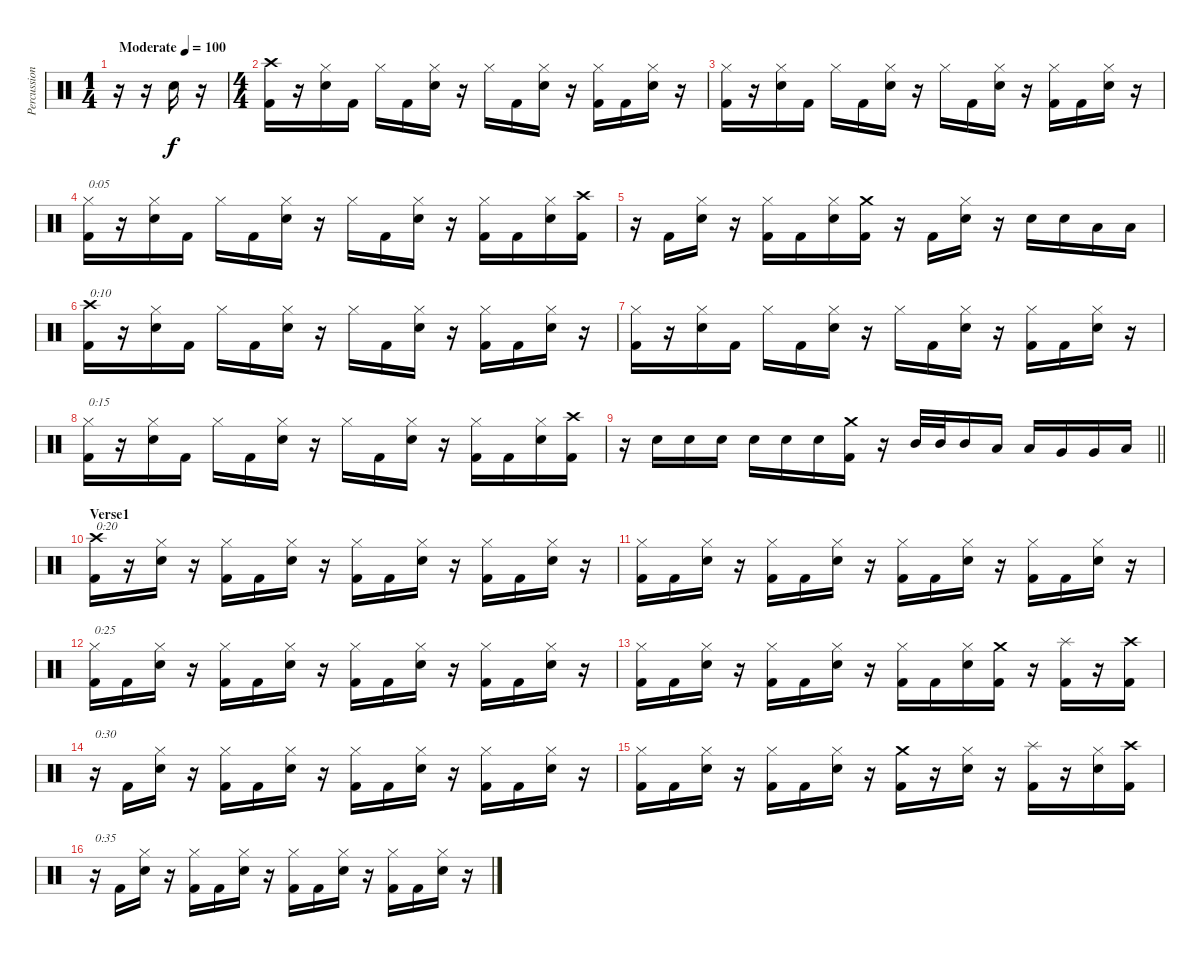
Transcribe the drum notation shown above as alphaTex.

\track ("Percussion" "Percussion") {instrument percussion}
\staff {score}
\articulation defaults
\ts (1 4)
\tempo (100 "Moderate")
\clef neutral
\ks c
r.16{dy f} r.16 "Electric Snare (hit)".16 r.16 |
\ts (4 4)
("Crash high (hit)" "Kick (hit) 2").16 r.16 ("Hi-Hat (closed)" "Electric Snare (hit)").16 "Kick (hit) 2".16 "Hi-Hat (closed)".16 "Kick (hit) 2".16 ("Hi-Hat (closed)" "Electric Snare (hit)").16 r.16 "Hi-Hat (closed)".16 "Kick (hit) 2".16 ("Hi-Hat (closed)" "Electric Snare (hit)").16 r.16 ("Hi-Hat (closed)" "Kick (hit) 2").16 "Kick (hit) 2".16 ("Hi-Hat (closed)" "Electric Snare (hit)").16 r.16 |
("Hi-Hat (closed)" "Kick (hit) 2").16 r.16 ("Hi-Hat (closed)" "Electric Snare (hit)").16 "Kick (hit) 2".16 "Hi-Hat (closed)".16 "Kick (hit) 2".16 ("Hi-Hat (closed)" "Electric Snare (hit)").16 r.16 "Hi-Hat (closed)".16 "Kick (hit) 2".16 ("Hi-Hat (closed)" "Electric Snare (hit)").16 r.16 ("Hi-Hat (closed)" "Kick (hit) 2").16 "Kick (hit) 2".16 ("Hi-Hat (closed)" "Electric Snare (hit)").16 r.16 |
("Hi-Hat (closed)" "Kick (hit) 2").16{txt "0:05"} r.16 ("Hi-Hat (closed)" "Electric Snare (hit)").16 "Kick (hit) 2".16 "Hi-Hat (closed)".16 "Kick (hit) 2".16 ("Hi-Hat (closed)" "Electric Snare (hit)").16 r.16 "Hi-Hat (closed)".16 "Kick (hit) 2".16 ("Hi-Hat (closed)" "Electric Snare (hit)").16 r.16 ("Hi-Hat (closed)" "Kick (hit) 2").16 "Kick (hit) 2".16 ("Hi-Hat (closed)" "Electric Snare (hit)").16 ("Crash high (hit)" "Kick (hit) 2").16 |
r.16 "Kick (hit) 2".16 ("Hi-Hat (closed)" "Electric Snare (hit)").16 r.16 ("Hi-Hat (closed)" "Kick (hit) 2").16 "Kick (hit) 2".16 ("Hi-Hat (closed)" "Electric Snare (hit)").16 ("Crash medium (hit)" "Kick (hit) 2").16 r.16 "Kick (hit) 2".16 ("Hi-Hat (closed)" "Electric Snare (hit)").16 r.16 "Electric Snare (hit)".16 "Electric Snare (hit)".16 "Low Tom (hit)".16 "Low Tom (hit)".16 |
("Crash high (hit)" "Kick (hit) 2").16{txt "0:10"} r.16 ("Hi-Hat (closed)" "Electric Snare (hit)").16 "Kick (hit) 2".16 "Hi-Hat (closed)".16 "Kick (hit) 2".16 ("Hi-Hat (closed)" "Electric Snare (hit)").16 r.16 "Hi-Hat (closed)".16 "Kick (hit) 2".16 ("Hi-Hat (closed)" "Electric Snare (hit)").16 r.16 ("Hi-Hat (closed)" "Kick (hit) 2").16 "Kick (hit) 2".16 ("Hi-Hat (closed)" "Electric Snare (hit)").16 r.16 |
("Hi-Hat (closed)" "Kick (hit) 2").16 r.16 ("Hi-Hat (closed)" "Electric Snare (hit)").16 "Kick (hit) 2".16 "Hi-Hat (closed)".16 "Kick (hit) 2".16 ("Hi-Hat (closed)" "Electric Snare (hit)").16 r.16 "Hi-Hat (closed)".16 "Kick (hit) 2".16 ("Hi-Hat (closed)" "Electric Snare (hit)").16 r.16 ("Hi-Hat (closed)" "Kick (hit) 2").16 "Kick (hit) 2".16 ("Hi-Hat (closed)" "Electric Snare (hit)").16 r.16 |
("Hi-Hat (closed)" "Kick (hit) 2").16{txt "0:15"} r.16 ("Hi-Hat (closed)" "Electric Snare (hit)").16 "Kick (hit) 2".16 "Hi-Hat (closed)".16 "Kick (hit) 2".16 ("Hi-Hat (closed)" "Electric Snare (hit)").16 r.16 "Hi-Hat (closed)".16 "Kick (hit) 2".16 ("Hi-Hat (closed)" "Electric Snare (hit)").16 r.16 ("Hi-Hat (closed)" "Kick (hit) 2").16 "Kick (hit) 2".16 ("Hi-Hat (closed)" "Electric Snare (hit)").16 ("Crash high (hit)" "Kick (hit) 2").16 |
\barLineRight lightlight
r.16 "Electric Snare (hit)".16 "Electric Snare (hit)".16 "Electric Snare (hit)".16 "Electric Snare (hit)".16 "Electric Snare (hit)".16 "Electric Snare (hit)".16 ("Crash medium (hit)" "Kick (hit) 2").16 r.16 "Mid Tom (hit)".32 "Mid Tom (hit)".32 "Mid Tom (hit)".16 "Low Tom (hit)".16 "Low Tom (hit)".16 "Very Low Tom (hit)".16 "Very Low Tom (hit)".16 "Low Floor Tom (hit)".16 |
\section ("" "Verse1")
("Crash high (hit)" "Kick (hit) 2").16{txt "0:20"} r.16 ("Hi-Hat (closed)" "Electric Snare (hit)").16 r.16 ("Hi-Hat (closed)" "Kick (hit) 2").16 "Kick (hit) 2".16 ("Hi-Hat (closed)" "Electric Snare (hit)").16 r.16 ("Hi-Hat (closed)" "Kick (hit) 2").16 "Kick (hit) 2".16 ("Hi-Hat (closed)" "Electric Snare (hit)").16 r.16 ("Hi-Hat (closed)" "Kick (hit) 2").16 "Kick (hit) 2".16 ("Hi-Hat (closed)" "Electric Snare (hit)").16 r.16 |
("Hi-Hat (closed)" "Kick (hit) 2").16 "Kick (hit) 2".16 ("Hi-Hat (closed)" "Electric Snare (hit)").16 r.16 ("Hi-Hat (closed)" "Kick (hit) 2").16 "Kick (hit) 2".16 ("Hi-Hat (closed)" "Electric Snare (hit)").16 r.16 ("Hi-Hat (closed)" "Kick (hit) 2").16 "Kick (hit) 2".16 ("Hi-Hat (closed)" "Electric Snare (hit)").16 r.16 ("Hi-Hat (closed)" "Kick (hit) 2").16 "Kick (hit) 2".16 ("Hi-Hat (closed)" "Electric Snare (hit)").16 r.16 |
("Hi-Hat (closed)" "Kick (hit) 2").16{txt "0:25"} "Kick (hit) 2".16 ("Hi-Hat (closed)" "Electric Snare (hit)").16 r.16 ("Hi-Hat (closed)" "Kick (hit) 2").16 "Kick (hit) 2".16 ("Hi-Hat (closed)" "Electric Snare (hit)").16 r.16 ("Hi-Hat (closed)" "Kick (hit) 2").16 "Kick (hit) 2".16 ("Hi-Hat (closed)" "Electric Snare (hit)").16 r.16 ("Hi-Hat (closed)" "Kick (hit) 2").16 "Kick (hit) 2".16 ("Hi-Hat (closed)" "Electric Snare (hit)").16 r.16 |
("Hi-Hat (closed)" "Kick (hit) 2").16 "Kick (hit) 2".16 ("Hi-Hat (closed)" "Electric Snare (hit)").16 r.16 ("Hi-Hat (closed)" "Kick (hit) 2").16 "Kick (hit) 2".16 ("Hi-Hat (closed)" "Electric Snare (hit)").16 r.16 ("Hi-Hat (closed)" "Kick (hit) 2").16 "Kick (hit) 2".16 ("Hi-Hat (closed)" "Electric Snare (hit)").16 ("Crash medium (hit)" "Kick (hit) 2").16 r.16 ("Splash (hit)" "Kick (hit) 2").16 r.16 ("Crash high (hit)" "Kick (hit) 2").16 |
r.16{txt "0:30"} "Kick (hit) 2".16 ("Hi-Hat (closed)" "Electric Snare (hit)").16 r.16 ("Hi-Hat (closed)" "Kick (hit) 2").16 "Kick (hit) 2".16 ("Hi-Hat (closed)" "Electric Snare (hit)").16 r.16 ("Hi-Hat (closed)" "Kick (hit) 2").16 "Kick (hit) 2".16 ("Hi-Hat (closed)" "Electric Snare (hit)").16 r.16 ("Hi-Hat (closed)" "Kick (hit) 2").16 "Kick (hit) 2".16 ("Hi-Hat (closed)" "Electric Snare (hit)").16 r.16 |
("Hi-Hat (closed)" "Kick (hit) 2").16 "Kick (hit) 2".16 ("Hi-Hat (closed)" "Electric Snare (hit)").16 r.16 ("Hi-Hat (closed)" "Kick (hit) 2").16 "Kick (hit) 2".16 ("Hi-Hat (closed)" "Electric Snare (hit)").16 r.16 ("Crash medium (hit)" "Kick (hit) 2").16 r.16 ("Hi-Hat (closed)" "Electric Snare (hit)").16 r.16 ("Splash (hit)" "Kick (hit) 2").16 r.16 ("Hi-Hat (closed)" "Electric Snare (hit)").16 ("Crash high (hit)" "Kick (hit) 2").16 |
r.16{txt "0:35"} "Kick (hit) 2".16 ("Hi-Hat (closed)" "Electric Snare (hit)").16 r.16 ("Hi-Hat (closed)" "Kick (hit) 2").16 "Kick (hit) 2".16 ("Hi-Hat (closed)" "Electric Snare (hit)").16 r.16 ("Hi-Hat (closed)" "Kick (hit) 2").16 "Kick (hit) 2".16 ("Hi-Hat (closed)" "Electric Snare (hit)").16 r.16 ("Hi-Hat (closed)" "Kick (hit) 2").16 "Kick (hit) 2".16 ("Hi-Hat (closed)" "Electric Snare (hit)").16 r.16
